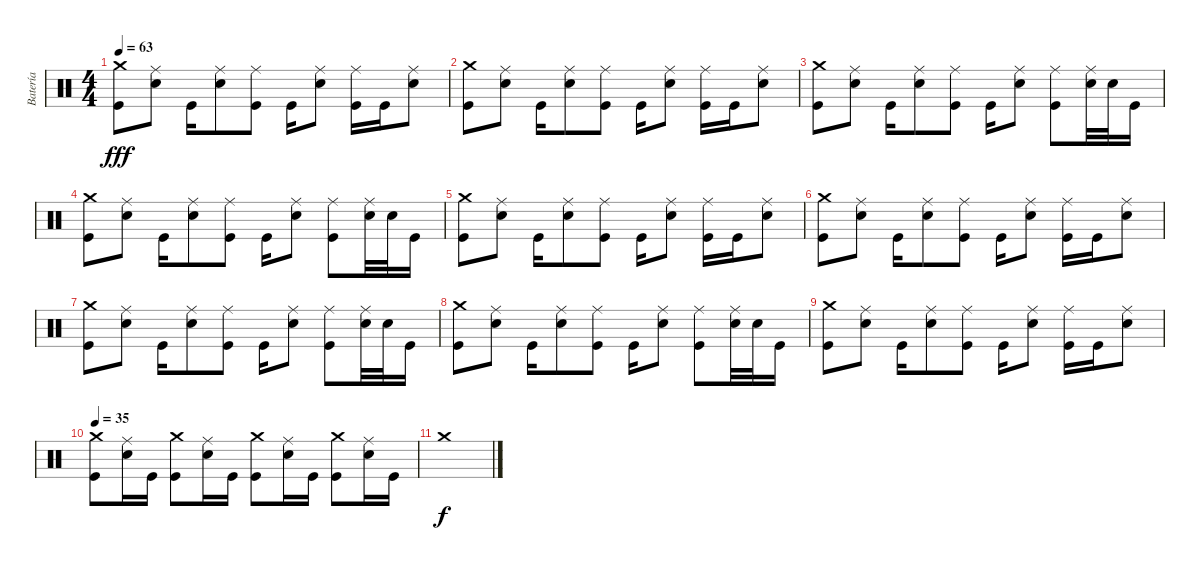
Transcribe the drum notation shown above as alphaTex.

\track ("Batería" "Batería") {instrument percussion}
\staff {score}
\articulation defaults
\ts (4 4)
\tempo 63
\clef neutral
\ks c
("Kick (hit)" "Crash medium (hit)").8{dy fff} ("Electric Snare (hit)" "Ride (middle)").8 "Kick (hit)".16 ("Electric Snare (hit)" "Ride (middle)").8 ("Kick (hit)" "Ride (middle)").8 "Kick (hit)".16 ("Electric Snare (hit)" "Ride (middle)").8 ("Kick (hit)" "Ride (middle)").16 "Kick (hit)".16 ("Electric Snare (hit)" "Ride (middle)").8 |
("Kick (hit)" "Crash medium (hit)").8 ("Electric Snare (hit)" "Ride (middle)").8 "Kick (hit)".16 ("Electric Snare (hit)" "Ride (middle)").8 ("Kick (hit)" "Ride (middle)").8 "Kick (hit)".16 ("Electric Snare (hit)" "Ride (middle)").8 ("Kick (hit)" "Ride (middle)").16 "Kick (hit)".16 ("Electric Snare (hit)" "Ride (middle)").8 |
("Kick (hit)" "Crash medium (hit)").8 ("Electric Snare (hit)" "Ride (middle)").8 "Kick (hit)".16 ("Electric Snare (hit)" "Ride (middle)").8 ("Kick (hit)" "Ride (middle)").8 "Kick (hit)".16 ("Electric Snare (hit)" "Ride (middle)").8 ("Kick (hit)" "Ride (middle)").8 ("Electric Snare (hit)" "Ride (middle)").32 "Electric Snare (hit)".32 "Kick (hit)".16 |
("Kick (hit)" "Crash medium (hit)").8 ("Electric Snare (hit)" "Ride (middle)").8 "Kick (hit)".16 ("Electric Snare (hit)" "Ride (middle)").8 ("Kick (hit)" "Ride (middle)").8 "Kick (hit)".16 ("Electric Snare (hit)" "Ride (middle)").8 ("Kick (hit)" "Ride (middle)").8 ("Electric Snare (hit)" "Ride (middle)").32 "Electric Snare (hit)".32 "Kick (hit)".16 |
("Kick (hit)" "Crash medium (hit)").8 ("Electric Snare (hit)" "Ride (middle)").8 "Kick (hit)".16 ("Electric Snare (hit)" "Ride (middle)").8 ("Kick (hit)" "Ride (middle)").8 "Kick (hit)".16 ("Electric Snare (hit)" "Ride (middle)").8 ("Kick (hit)" "Ride (middle)").16 "Kick (hit)".16 ("Electric Snare (hit)" "Ride (middle)").8 |
("Kick (hit)" "Crash medium (hit)").8 ("Electric Snare (hit)" "Ride (middle)").8 "Kick (hit)".16 ("Electric Snare (hit)" "Ride (middle)").8 ("Kick (hit)" "Ride (middle)").8 "Kick (hit)".16 ("Electric Snare (hit)" "Ride (middle)").8 ("Kick (hit)" "Ride (middle)").16 "Kick (hit)".16 ("Electric Snare (hit)" "Ride (middle)").8 |
("Kick (hit)" "Crash medium (hit)").8 ("Electric Snare (hit)" "Ride (middle)").8 "Kick (hit)".16 ("Electric Snare (hit)" "Ride (middle)").8 ("Kick (hit)" "Ride (middle)").8 "Kick (hit)".16 ("Electric Snare (hit)" "Ride (middle)").8 ("Kick (hit)" "Ride (middle)").8 ("Electric Snare (hit)" "Ride (middle)").32 "Electric Snare (hit)".32 "Kick (hit)".16 |
("Kick (hit)" "Crash medium (hit)").8 ("Electric Snare (hit)" "Ride (middle)").8 "Kick (hit)".16 ("Electric Snare (hit)" "Ride (middle)").8 ("Kick (hit)" "Ride (middle)").8 "Kick (hit)".16 ("Electric Snare (hit)" "Ride (middle)").8 ("Kick (hit)" "Ride (middle)").8 ("Electric Snare (hit)" "Ride (middle)").32 "Electric Snare (hit)".32 "Kick (hit)".16 |
("Kick (hit)" "Crash medium (hit)").8 ("Electric Snare (hit)" "Ride (middle)").8 "Kick (hit)".16 ("Electric Snare (hit)" "Ride (middle)").8 ("Kick (hit)" "Ride (middle)").8 "Kick (hit)".16 ("Electric Snare (hit)" "Ride (middle)").8 ("Kick (hit)" "Ride (middle)").16 "Kick (hit)".16 ("Electric Snare (hit)" "Ride (middle)").8 |
\tempo 35
("Kick (hit)" "Crash medium (hit)").8 ("Electric Snare (hit)" "Ride (middle)").16 "Kick (hit)".16 ("Kick (hit)" "Crash medium (hit)").8 ("Electric Snare (hit)" "Ride (middle)").16 "Kick (hit)".16 ("Kick (hit)" "Crash medium (hit)").8 ("Electric Snare (hit)" "Ride (middle)").16 "Kick (hit)".16 ("Kick (hit)" "Crash medium (hit)").8 ("Electric Snare (hit)" "Ride (middle)").16 "Kick (hit)".16 |
"Crash medium (hit)".1{dy f}
